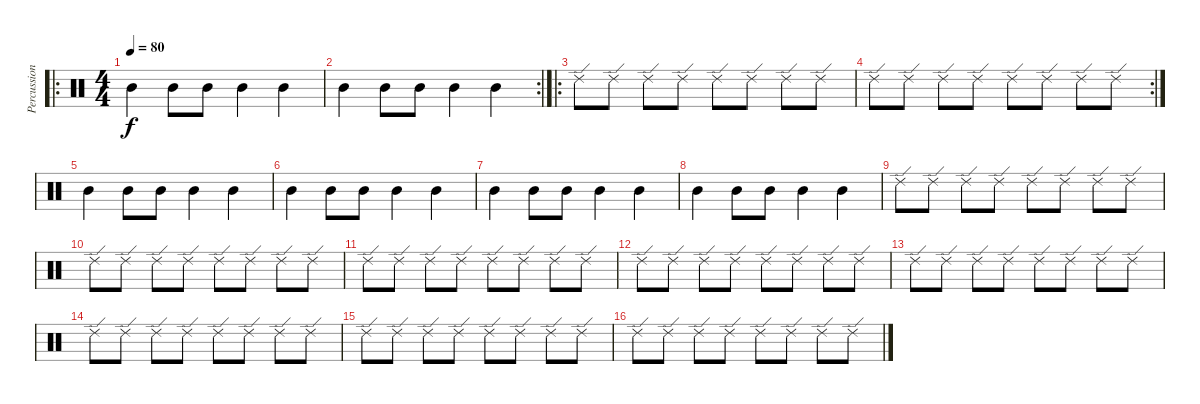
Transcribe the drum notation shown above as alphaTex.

\track ("Percussion" "Percussion") {instrument percussion}
\staff {score}
\articulation defaults
\ro
\ts (4 4)
\tempo 80
\clef neutral
\ks c "Mid Tom (hit)".4{dy f} "Mid Tom (hit)".8 "Mid Tom (hit)".8 "Mid Tom (hit)".4 "Mid Tom (hit)".4
|
\rc 2 "Mid Tom (hit)".4 "Mid Tom (hit)".8 "Mid Tom (hit)".8 "Mid Tom (hit)".4 "Mid Tom (hit)".4
|
\ro "Ride (edge) 2".8 "Ride (edge) 2".8 "Ride (edge) 2".8 "Ride (edge) 2".8 "Ride (edge) 2".8 "Ride (edge) 2".8 "Ride (edge) 2".8 "Ride (edge) 2".8
|
\rc 2 "Ride (edge) 2".8 "Ride (edge) 2".8 "Ride (edge) 2".8 "Ride (edge) 2".8 "Ride (edge) 2".8 "Ride (edge) 2".8 "Ride (edge) 2".8 "Ride (edge) 2".8
|
"Mid Tom (hit)".4 "Mid Tom (hit)".8 "Mid Tom (hit)".8 "Mid Tom (hit)".4 "Mid Tom (hit)".4 |
"Mid Tom (hit)".4 "Mid Tom (hit)".8 "Mid Tom (hit)".8 "Mid Tom (hit)".4 "Mid Tom (hit)".4 |
"Mid Tom (hit)".4 "Mid Tom (hit)".8 "Mid Tom (hit)".8 "Mid Tom (hit)".4 "Mid Tom (hit)".4 |
"Mid Tom (hit)".4 "Mid Tom (hit)".8 "Mid Tom (hit)".8 "Mid Tom (hit)".4 "Mid Tom (hit)".4 |
"Ride (edge) 2".8 "Ride (edge) 2".8 "Ride (edge) 2".8 "Ride (edge) 2".8 "Ride (edge) 2".8 "Ride (edge) 2".8 "Ride (edge) 2".8 "Ride (edge) 2".8 |
"Ride (edge) 2".8 "Ride (edge) 2".8 "Ride (edge) 2".8 "Ride (edge) 2".8 "Ride (edge) 2".8 "Ride (edge) 2".8 "Ride (edge) 2".8 "Ride (edge) 2".8 |
"Ride (edge) 2".8 "Ride (edge) 2".8 "Ride (edge) 2".8 "Ride (edge) 2".8 "Ride (edge) 2".8 "Ride (edge) 2".8 "Ride (edge) 2".8 "Ride (edge) 2".8 |
"Ride (edge) 2".8 "Ride (edge) 2".8 "Ride (edge) 2".8 "Ride (edge) 2".8 "Ride (edge) 2".8 "Ride (edge) 2".8 "Ride (edge) 2".8 "Ride (edge) 2".8 |
"Ride (edge) 2".8 "Ride (edge) 2".8 "Ride (edge) 2".8 "Ride (edge) 2".8 "Ride (edge) 2".8 "Ride (edge) 2".8 "Ride (edge) 2".8 "Ride (edge) 2".8 |
"Ride (edge) 2".8 "Ride (edge) 2".8 "Ride (edge) 2".8 "Ride (edge) 2".8 "Ride (edge) 2".8 "Ride (edge) 2".8 "Ride (edge) 2".8 "Ride (edge) 2".8 |
"Ride (edge) 2".8 "Ride (edge) 2".8 "Ride (edge) 2".8 "Ride (edge) 2".8 "Ride (edge) 2".8 "Ride (edge) 2".8 "Ride (edge) 2".8 "Ride (edge) 2".8 |
"Ride (edge) 2".8 "Ride (edge) 2".8 "Ride (edge) 2".8 "Ride (edge) 2".8 "Ride (edge) 2".8 "Ride (edge) 2".8 "Ride (edge) 2".8 "Ride (edge) 2".8
